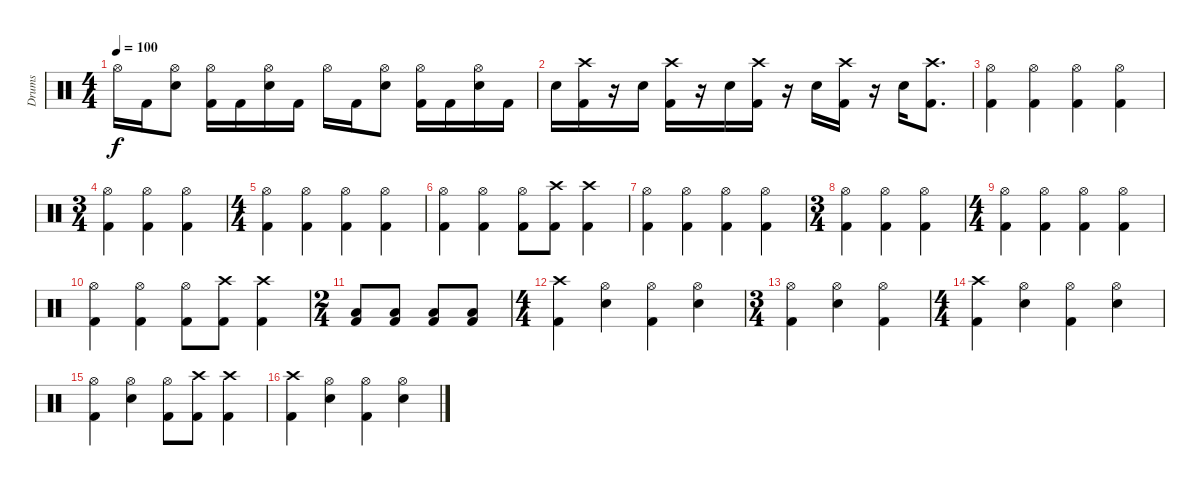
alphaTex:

\track ("Drums" "Drums") {instrument percussion}
\staff {score}
\articulation defaults
\ts (4 4)
\tempo 100
\clef neutral
\ks c "Hi-Hat (open)".16{dy f} "Kick (hit) 2".16
("Snare (hit) 2" "Hi-Hat (open)").8 ("Kick (hit) 2" "Hi-Hat (open)").16 "Kick (hit) 2".16 ("Snare (hit) 2" "Hi-Hat (open)").16 "Kick (hit) 2".16 "Hi-Hat (open)".16 "Kick (hit) 2".16 ("Snare (hit) 2" "Hi-Hat (open)").8 ("Kick (hit) 2" "Hi-Hat (open)").16 "Kick (hit) 2".16 ("Snare (hit) 2" "Hi-Hat (open)").16 "Kick (hit) 2".16 |
"Snare (hit) 2".16 ("Kick (hit) 2" "Crash high (hit)").16 r.16 "Snare (hit) 2".16 ("Kick (hit) 2" "Crash high (hit)").16 r.16 "Snare (hit) 2".16 ("Kick (hit) 2" "Crash high (hit)").16 r.16 "Snare (hit) 2".16 ("Kick (hit) 2" "Crash high (hit)").16 r.16 "Snare (hit) 2".16 ("Kick (hit) 2" "Crash high (hit)").8{d} |
("Kick (hit) 2" "Hi-Hat (open)").4 ("Kick (hit) 2" "Hi-Hat (open)").4 ("Kick (hit) 2" "Hi-Hat (open)").4 ("Kick (hit) 2" "Hi-Hat (open)").4 |
\ts (3 4)
("Kick (hit) 2" "Hi-Hat (open)").4 ("Kick (hit) 2" "Hi-Hat (open)").4 ("Kick (hit) 2" "Hi-Hat (open)").4 |
\ts (4 4)
("Kick (hit) 2" "Hi-Hat (open)").4 ("Kick (hit) 2" "Hi-Hat (open)").4 ("Kick (hit) 2" "Hi-Hat (open)").4 ("Kick (hit) 2" "Hi-Hat (open)").4 |
("Kick (hit) 2" "Hi-Hat (open)").4 ("Kick (hit) 2" "Hi-Hat (open)").4 ("Kick (hit) 2" "Hi-Hat (open)").8 ("Kick (hit) 2" "Crash high (hit)").8 ("Kick (hit) 2" "Crash high (hit)").4 |
("Kick (hit) 2" "Hi-Hat (open)").4 ("Kick (hit) 2" "Hi-Hat (open)").4 ("Kick (hit) 2" "Hi-Hat (open)").4 ("Kick (hit) 2" "Hi-Hat (open)").4 |
\ts (3 4)
("Kick (hit) 2" "Hi-Hat (open)").4 ("Kick (hit) 2" "Hi-Hat (open)").4 ("Kick (hit) 2" "Hi-Hat (open)").4 |
\ts (4 4)
("Kick (hit) 2" "Hi-Hat (open)").4 ("Kick (hit) 2" "Hi-Hat (open)").4 ("Kick (hit) 2" "Hi-Hat (open)").4 ("Kick (hit) 2" "Hi-Hat (open)").4 |
("Kick (hit) 2" "Hi-Hat (open)").4 ("Kick (hit) 2" "Hi-Hat (open)").4 ("Kick (hit) 2" "Hi-Hat (open)").8 ("Kick (hit) 2" "Crash high (hit)").8 ("Kick (hit) 2" "Crash high (hit)").4 |
\ts (2 4)
("Kick (hit) 2" "Low Floor Tom (hit)").8 ("Kick (hit) 2" "Low Floor Tom (hit)").8 ("Kick (hit) 2" "Low Floor Tom (hit)").8 ("Kick (hit) 2" "Low Floor Tom (hit)").8 |
\ts (4 4)
("Kick (hit) 2" "Crash high (hit)").4 ("Snare (hit) 2" "Hi-Hat (open)").4 ("Kick (hit) 2" "Hi-Hat (open)").4 ("Snare (hit) 2" "Hi-Hat (open)").4 |
\ts (3 4)
("Kick (hit) 2" "Hi-Hat (open)").4 ("Snare (hit) 2" "Hi-Hat (open)").4 ("Kick (hit) 2" "Hi-Hat (open)").4 |
\ts (4 4)
("Kick (hit) 2" "Crash high (hit)").4 ("Snare (hit) 2" "Hi-Hat (open)").4 ("Kick (hit) 2" "Hi-Hat (open)").4 ("Snare (hit) 2" "Hi-Hat (open)").4 |
("Kick (hit) 2" "Hi-Hat (open)").4 ("Snare (hit) 2" "Hi-Hat (open)").4 ("Kick (hit) 2" "Hi-Hat (open)").8 ("Kick (hit) 2" "Crash high (hit)").8 ("Kick (hit) 2" "Crash high (hit)").4 |
("Kick (hit) 2" "Crash high (hit)").4 ("Snare (hit) 2" "Hi-Hat (open)").4 ("Kick (hit) 2" "Hi-Hat (open)").4 ("Snare (hit) 2" "Hi-Hat (open)").4
